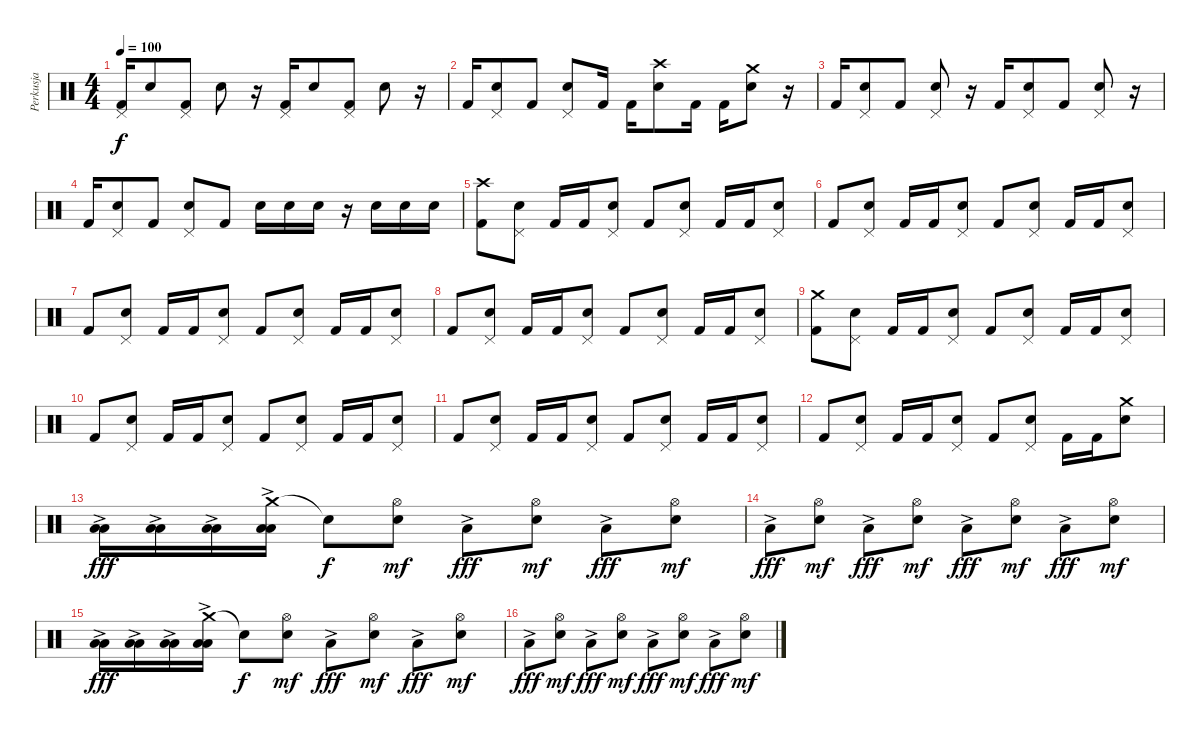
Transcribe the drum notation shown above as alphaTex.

\track ("Perkusja" "Perkusja") {instrument percussion}
\staff {score}
\articulation defaults
\ts (4 4)
\tempo 100
\clef neutral
\ks c
("Pedal Hi-Hat (hit)" "Kick (hit) 2").16{dy f} "Snare (hit) 2".8 ("Pedal Hi-Hat (hit)" "Kick (hit) 2").8 "Snare (hit) 2".8 r.16 ("Pedal Hi-Hat (hit)" "Kick (hit) 2").16 "Snare (hit) 2".8 ("Pedal Hi-Hat (hit)" "Kick (hit) 2").8 "Snare (hit) 2".8 r.16 |
"Kick (hit) 2".16 ("Pedal Hi-Hat (hit)" "Snare (hit) 2").8 "Kick (hit) 2".8 ("Pedal Hi-Hat (hit)" "Snare (hit) 2").8 "Kick (hit) 2".16 "Kick (hit) 2".16 ("Crash high (hit)" "Snare (hit) 2").8 "Kick (hit) 2".16 "Kick (hit) 2".16 ("Crash medium (hit)" "Snare (hit) 2").8 r.16 |
"Kick (hit) 2".16 ("Pedal Hi-Hat (hit)" "Snare (hit) 2").8 "Kick (hit) 2".8 ("Pedal Hi-Hat (hit)" "Snare (hit) 2").8 r.16 "Kick (hit) 2".16 ("Pedal Hi-Hat (hit)" "Snare (hit) 2").8 "Kick (hit) 2".8 ("Pedal Hi-Hat (hit)" "Snare (hit) 2").8 r.16 |
"Kick (hit) 2".16 ("Pedal Hi-Hat (hit)" "Snare (hit) 2").8 "Kick (hit) 2".8 ("Pedal Hi-Hat (hit)" "Snare (hit) 2").8 "Kick (hit) 2".8 "Snare (hit) 2".16 "Snare (hit) 2".16 "Snare (hit) 2".16 r.16 "Snare (hit) 2".16 "Snare (hit) 2".16 "Snare (hit) 2".16 |
("Crash high (hit)" "Kick (hit) 2").8 ("Pedal Hi-Hat (hit)" "Snare (hit) 2").8 "Kick (hit) 2".16 "Kick (hit) 2".16 ("Pedal Hi-Hat (hit)" "Snare (hit) 2").8 "Kick (hit) 2".8 ("Pedal Hi-Hat (hit)" "Snare (hit) 2").8 "Kick (hit) 2".16 "Kick (hit) 2".16 ("Pedal Hi-Hat (hit)" "Snare (hit) 2").8 |
"Kick (hit) 2".8 ("Pedal Hi-Hat (hit)" "Snare (hit) 2").8 "Kick (hit) 2".16 "Kick (hit) 2".16 ("Pedal Hi-Hat (hit)" "Snare (hit) 2").8 "Kick (hit) 2".8 ("Pedal Hi-Hat (hit)" "Snare (hit) 2").8 "Kick (hit) 2".16 "Kick (hit) 2".16 ("Pedal Hi-Hat (hit)" "Snare (hit) 2").8 |
"Kick (hit) 2".8 ("Pedal Hi-Hat (hit)" "Snare (hit) 2").8 "Kick (hit) 2".16 "Kick (hit) 2".16 ("Pedal Hi-Hat (hit)" "Snare (hit) 2").8 "Kick (hit) 2".8 ("Pedal Hi-Hat (hit)" "Snare (hit) 2").8 "Kick (hit) 2".16 "Kick (hit) 2".16 ("Pedal Hi-Hat (hit)" "Snare (hit) 2").8 |
"Kick (hit) 2".8 ("Pedal Hi-Hat (hit)" "Snare (hit) 2").8 "Kick (hit) 2".16 "Kick (hit) 2".16 ("Pedal Hi-Hat (hit)" "Snare (hit) 2").8 "Kick (hit) 2".8 ("Pedal Hi-Hat (hit)" "Snare (hit) 2").8 "Kick (hit) 2".16 "Kick (hit) 2".16 ("Pedal Hi-Hat (hit)" "Snare (hit) 2").8 |
("Crash medium (hit)" "Kick (hit) 2").8 ("Pedal Hi-Hat (hit)" "Snare (hit) 2").8 "Kick (hit) 2".16 "Kick (hit) 2".16 ("Pedal Hi-Hat (hit)" "Snare (hit) 2").8 "Kick (hit) 2".8 ("Pedal Hi-Hat (hit)" "Snare (hit) 2").8 "Kick (hit) 2".16 "Kick (hit) 2".16 ("Pedal Hi-Hat (hit)" "Snare (hit) 2").8 |
"Kick (hit) 2".8 ("Pedal Hi-Hat (hit)" "Snare (hit) 2").8 "Kick (hit) 2".16 "Kick (hit) 2".16 ("Pedal Hi-Hat (hit)" "Snare (hit) 2").8 "Kick (hit) 2".8 ("Pedal Hi-Hat (hit)" "Snare (hit) 2").8 "Kick (hit) 2".16 "Kick (hit) 2".16 ("Pedal Hi-Hat (hit)" "Snare (hit) 2").8 |
"Kick (hit) 2".8 ("Pedal Hi-Hat (hit)" "Snare (hit) 2").8 "Kick (hit) 2".16 "Kick (hit) 2".16 ("Pedal Hi-Hat (hit)" "Snare (hit) 2").8 "Kick (hit) 2".8 ("Pedal Hi-Hat (hit)" "Snare (hit) 2").8 "Kick (hit) 2".16 "Kick (hit) 2".16 ("Pedal Hi-Hat (hit)" "Snare (hit) 2").8 |
"Kick (hit) 2".8 ("Pedal Hi-Hat (hit)" "Snare (hit) 2").8 "Kick (hit) 2".16 "Kick (hit) 2".16 ("Pedal Hi-Hat (hit)" "Snare (hit) 2").8 "Kick (hit) 2".8 ("Pedal Hi-Hat (hit)" "Snare (hit) 2").8 "Kick (hit) 2".16 "Kick (hit) 2".16 ("Crash medium (hit)" "Snare (hit) 2").8 |
("Low Tom (hit)"{ac} "Low Tom (hit)").16{dy fff} ("Low Tom (hit)"{ac} "Low Tom (hit)").16 ("Low Tom (hit)"{ac} "Low Tom (hit)").16 ("Crash medium (hit)" "Low Tom (hit)"{ac} "Low Tom (hit)").16 "Snare (hit)"{t}.8{dy f} ("Hi-Hat (open)" "Snare (hit) 2").8{dy mf} "Low Tom (hit)"{ac}.8{dy fff} ("Hi-Hat (open)" "Snare (hit) 2").8{dy mf} "Low Tom (hit)"{ac}.8{dy fff} ("Hi-Hat (open)" "Snare (hit) 2").8{dy mf} |
"Low Tom (hit)"{ac}.8{dy fff} ("Hi-Hat (open)" "Snare (hit) 2").8{dy mf} "Low Tom (hit)"{ac}.8{dy fff} ("Hi-Hat (open)" "Snare (hit) 2").8{dy mf} "Low Tom (hit)"{ac}.8{dy fff} ("Hi-Hat (open)" "Snare (hit) 2").8{dy mf} "Low Tom (hit)"{ac}.8{dy fff} ("Hi-Hat (open)" "Snare (hit) 2").8{dy mf} |
("Low Tom (hit)"{ac} "Low Tom (hit)").16{dy fff} ("Low Tom (hit)"{ac} "Low Tom (hit)").16 ("Low Tom (hit)"{ac} "Low Tom (hit)").16 ("Crash medium (hit)" "Low Tom (hit)"{ac} "Low Tom (hit)").16 "Snare (hit)"{t}.8{dy f} ("Hi-Hat (open)" "Snare (hit) 2").8{dy mf} "Low Tom (hit)"{ac}.8{dy fff} ("Hi-Hat (open)" "Snare (hit) 2").8{dy mf} "Low Tom (hit)"{ac}.8{dy fff} ("Hi-Hat (open)" "Snare (hit) 2").8{dy mf} |
"Low Tom (hit)"{ac}.8{dy fff} ("Hi-Hat (open)" "Snare (hit) 2").8{dy mf} "Low Tom (hit)"{ac}.8{dy fff} ("Hi-Hat (open)" "Snare (hit) 2").8{dy mf} "Low Tom (hit)"{ac}.8{dy fff} ("Hi-Hat (open)" "Snare (hit) 2").8{dy mf} "Low Tom (hit)"{ac}.8{dy fff} ("Hi-Hat (open)" "Snare (hit) 2").8{dy mf}
